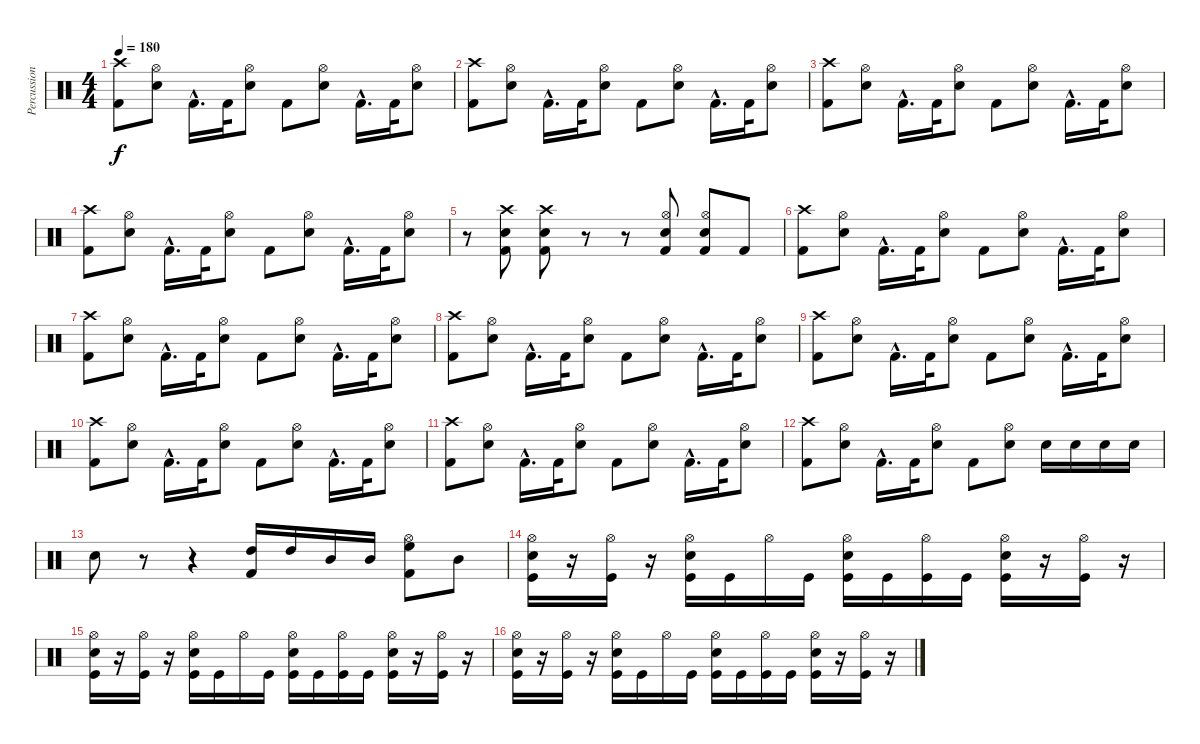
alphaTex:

\track ("Percussion" "Percussion") {instrument percussion}
\staff {score}
\articulation defaults
\ts (4 4)
\tempo 180
\clef neutral
\ks c
("Crash high (hit)" "Kick (hit) 2").8{dy f} ("Hi-Hat (open)" "Snare (hit) 2").8 "Kick (hit) 2"{hac}.16{d} "Kick (hit) 2".32 ("Hi-Hat (open)" "Snare (hit) 2").8 "Kick (hit) 2".8 ("Hi-Hat (open)" "Snare (hit) 2").8 "Kick (hit) 2"{hac}.16{d} "Kick (hit) 2".32 ("Hi-Hat (open)" "Snare (hit) 2").8 |
("Crash high (hit)" "Kick (hit) 2").8 ("Hi-Hat (open)" "Snare (hit) 2").8 "Kick (hit) 2"{hac}.16{d} "Kick (hit) 2".32 ("Hi-Hat (open)" "Snare (hit) 2").8 "Kick (hit) 2".8 ("Hi-Hat (open)" "Snare (hit) 2").8 "Kick (hit) 2"{hac}.16{d} "Kick (hit) 2".32 ("Hi-Hat (open)" "Snare (hit) 2").8 |
("Crash high (hit)" "Kick (hit) 2").8 ("Hi-Hat (open)" "Snare (hit) 2").8 "Kick (hit) 2"{hac}.16{d} "Kick (hit) 2".32 ("Hi-Hat (open)" "Snare (hit) 2").8 "Kick (hit) 2".8 ("Hi-Hat (open)" "Snare (hit) 2").8 "Kick (hit) 2"{hac}.16{d} "Kick (hit) 2".32 ("Hi-Hat (open)" "Snare (hit) 2").8 |
("Crash high (hit)" "Kick (hit) 2").8 ("Hi-Hat (open)" "Snare (hit) 2").8 "Kick (hit) 2"{hac}.16{d} "Kick (hit) 2".32 ("Hi-Hat (open)" "Snare (hit) 2").8 "Kick (hit) 2".8 ("Hi-Hat (open)" "Snare (hit) 2").8 "Kick (hit) 2"{hac}.16{d} "Kick (hit) 2".32 ("Hi-Hat (open)" "Snare (hit) 2").8 |
r.8 ("Crash high (hit)" "Snare (hit) 2" "Kick (hit) 2").8 ("Crash high (hit)" "Snare (hit) 2" "Kick (hit) 2").8 r.8 r.8 ("Hi-Hat (open)" "Snare (hit) 2" "Kick (hit) 2").8 ("Hi-Hat (open)" "Snare (hit) 2" "Kick (hit) 2").8 "Kick (hit) 2".8 |
("Crash high (hit)" "Kick (hit) 2").8 ("Hi-Hat (open)" "Snare (hit) 2").8 "Kick (hit) 2"{hac}.16{d} "Kick (hit) 2".32 ("Hi-Hat (open)" "Snare (hit) 2").8 "Kick (hit) 2".8 ("Hi-Hat (open)" "Snare (hit) 2").8 "Kick (hit) 2"{hac}.16{d} "Kick (hit) 2".32 ("Hi-Hat (open)" "Snare (hit) 2").8 |
("Crash high (hit)" "Kick (hit) 2").8 ("Hi-Hat (open)" "Snare (hit) 2").8 "Kick (hit) 2"{hac}.16{d} "Kick (hit) 2".32 ("Hi-Hat (open)" "Snare (hit) 2").8 "Kick (hit) 2".8 ("Hi-Hat (open)" "Snare (hit) 2").8 "Kick (hit) 2"{hac}.16{d} "Kick (hit) 2".32 ("Hi-Hat (open)" "Snare (hit) 2").8 |
("Crash high (hit)" "Kick (hit) 2").8 ("Hi-Hat (open)" "Snare (hit) 2").8 "Kick (hit) 2"{hac}.16{d} "Kick (hit) 2".32 ("Hi-Hat (open)" "Snare (hit) 2").8 "Kick (hit) 2".8 ("Hi-Hat (open)" "Snare (hit) 2").8 "Kick (hit) 2"{hac}.16{d} "Kick (hit) 2".32 ("Hi-Hat (open)" "Snare (hit) 2").8 |
("Crash high (hit)" "Kick (hit) 2").8 ("Hi-Hat (open)" "Snare (hit) 2").8 "Kick (hit) 2"{hac}.16{d} "Kick (hit) 2".32 ("Hi-Hat (open)" "Snare (hit) 2").8 "Kick (hit) 2".8 ("Hi-Hat (open)" "Snare (hit) 2").8 "Kick (hit) 2"{hac}.16{d} "Kick (hit) 2".32 ("Hi-Hat (open)" "Snare (hit) 2").8 |
("Crash high (hit)" "Kick (hit) 2").8 ("Hi-Hat (open)" "Snare (hit) 2").8 "Kick (hit) 2"{hac}.16{d} "Kick (hit) 2".32 ("Hi-Hat (open)" "Snare (hit) 2").8 "Kick (hit) 2".8 ("Hi-Hat (open)" "Snare (hit) 2").8 "Kick (hit) 2"{hac}.16{d} "Kick (hit) 2".32 ("Hi-Hat (open)" "Snare (hit) 2").8 |
("Crash high (hit)" "Kick (hit) 2").8 ("Hi-Hat (open)" "Snare (hit) 2").8 "Kick (hit) 2"{hac}.16{d} "Kick (hit) 2".32 ("Hi-Hat (open)" "Snare (hit) 2").8 "Kick (hit) 2".8 ("Hi-Hat (open)" "Snare (hit) 2").8 "Kick (hit) 2"{hac}.16{d} "Kick (hit) 2".32 ("Hi-Hat (open)" "Snare (hit) 2").8 |
("Crash high (hit)" "Kick (hit) 2").8 ("Hi-Hat (open)" "Snare (hit) 2").8 "Kick (hit) 2"{hac}.16{d} "Kick (hit) 2".32 ("Hi-Hat (open)" "Snare (hit) 2").8 "Kick (hit) 2".8 ("Hi-Hat (open)" "Snare (hit) 2").8 "Snare (hit) 2".16 "Snare (hit) 2".16 "Snare (hit) 2".16 "Snare (hit) 2".16 |
"Snare (hit) 2".8 r.8 r.4 ("High Tom (hit)" "Kick (hit) 2").16 "High Tom (hit)".16 "Mid Tom (hit)".16 "Mid Tom (hit)".16 ("Hi-Hat (open)" "High Floor Tom (hit)" "Kick (hit) 2").8 "Mid Tom (hit)".8 |
("Hi-Hat (open)" "Snare (hit) 2" "Kick (hit)").16 r.16 ("Hi-Hat (open)" "Kick (hit)").16 r.16 ("Hi-Hat (open)" "Snare (hit) 2" "Kick (hit)").16 "Kick (hit)".16 "Hi-Hat (open)".16 "Kick (hit)".16 ("Hi-Hat (open)" "Snare (hit) 2" "Kick (hit)").16 "Kick (hit)".16 ("Hi-Hat (open)" "Kick (hit)").16 "Kick (hit)".16 ("Hi-Hat (open)" "Snare (hit) 2" "Kick (hit)").16 r.16 ("Hi-Hat (open)" "Kick (hit)").16 r.16 |
("Hi-Hat (open)" "Snare (hit) 2" "Kick (hit)").16 r.16 ("Hi-Hat (open)" "Kick (hit)").16 r.16 ("Hi-Hat (open)" "Snare (hit) 2" "Kick (hit)").16 "Kick (hit)".16 "Hi-Hat (open)".16 "Kick (hit)".16 ("Hi-Hat (open)" "Snare (hit) 2" "Kick (hit)").16 "Kick (hit)".16 ("Hi-Hat (open)" "Kick (hit)").16 "Kick (hit)".16 ("Hi-Hat (open)" "Snare (hit) 2" "Kick (hit)").16 r.16 ("Hi-Hat (open)" "Kick (hit)").16 r.16 |
("Hi-Hat (open)" "Snare (hit) 2" "Kick (hit)").16 r.16 ("Hi-Hat (open)" "Kick (hit)").16 r.16 ("Hi-Hat (open)" "Snare (hit) 2" "Kick (hit)").16 "Kick (hit)".16 "Hi-Hat (open)".16 "Kick (hit)".16 ("Hi-Hat (open)" "Snare (hit) 2" "Kick (hit)").16 "Kick (hit)".16 ("Hi-Hat (open)" "Kick (hit)").16 "Kick (hit)".16 ("Hi-Hat (open)" "Snare (hit) 2" "Kick (hit)").16 r.16 ("Hi-Hat (open)" "Kick (hit)").16 r.16
